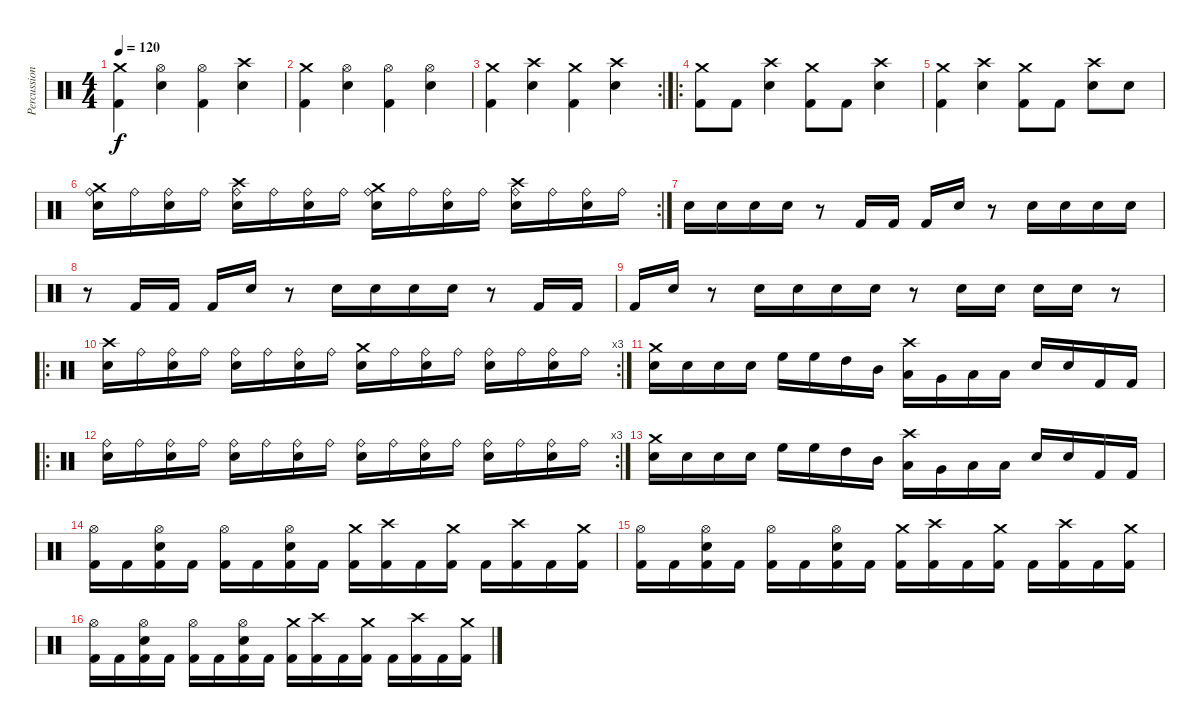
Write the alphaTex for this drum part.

\track ("Percussion" "Percussion") {instrument percussion}
\staff {score}
\articulation defaults
\ts (4 4)
\tempo 120
\clef neutral
\ks c
("Crash medium (hit)" "Kick (hit) 2").4{dy f} ("Hi-Hat (open)" "Electric Snare (hit)").4 ("Hi-Hat (open)" "Kick (hit) 2").4 ("Crash high (hit)" "Electric Snare (hit)").4 |
("Crash medium (hit)" "Kick (hit) 2").4 ("Hi-Hat (open)" "Electric Snare (hit)").4 ("Hi-Hat (open)" "Kick (hit) 2").4 ("Hi-Hat (open)" "Electric Snare (hit)").4 |
\rc 2
("Crash medium (hit)" "Kick (hit) 2").4 ("Crash high (hit)" "Electric Snare (hit)").4 ("Crash medium (hit)" "Kick (hit) 2").4 ("Crash high (hit)" "Electric Snare (hit)").4 |
\ro
("Crash medium (hit)" "Kick (hit) 2").8 "Kick (hit) 2".8 ("Crash high (hit)" "Electric Snare (hit)").4 ("Crash medium (hit)" "Kick (hit) 2").8 "Kick (hit) 2".8 ("Crash high (hit)" "Electric Snare (hit)").4 |
("Crash medium (hit)" "Kick (hit) 2").4 ("Crash high (hit)" "Electric Snare (hit)").4 ("Crash medium (hit)" "Kick (hit) 2").8 "Kick (hit) 2".8 ("Crash high (hit)" "Electric Snare (hit)").8 "Electric Snare (hit)".8 |
\rc 2
("Crash medium (hit)" "Ride (bell)" "Electric Snare (hit)").16 "Ride (bell)".16 ("Ride (bell)" "Electric Snare (hit)").16 "Ride (bell)".16 ("Crash high (hit)" "Ride (bell)" "Electric Snare (hit)").16 "Ride (bell)".16 ("Ride (bell)" "Electric Snare (hit)").16 "Ride (bell)".16 ("Crash medium (hit)" "Ride (bell)" "Electric Snare (hit)").16 "Ride (bell)".16 ("Ride (bell)" "Electric Snare (hit)").16 "Ride (bell)".16 ("Crash high (hit)" "Ride (bell)" "Electric Snare (hit)").16 "Ride (bell)".16 ("Ride (bell)" "Electric Snare (hit)").16 "Ride (bell)".16 |
"Electric Snare (hit)".16 "Electric Snare (hit)".16 "Electric Snare (hit)".16 "Electric Snare (hit)".16 r.8 "Kick (hit) 2".16 "Kick (hit) 2".16 "Kick (hit) 2".16 "Electric Snare (hit)".16 r.8 "Electric Snare (hit)".16 "Electric Snare (hit)".16 "Electric Snare (hit)".16 "Electric Snare (hit)".16 |
r.8 "Kick (hit) 2".16 "Kick (hit) 2".16 "Kick (hit) 2".16 "Electric Snare (hit)".16 r.8 "Electric Snare (hit)".16 "Electric Snare (hit)".16 "Electric Snare (hit)".16 "Electric Snare (hit)".16 r.8 "Kick (hit) 2".16 "Kick (hit) 2".16 |
"Kick (hit) 2".16 "Electric Snare (hit)".16 r.8 "Electric Snare (hit)".16 "Electric Snare (hit)".16 "Electric Snare (hit)".16 "Electric Snare (hit)".16 r.8 "Electric Snare (hit)".16 "Electric Snare (hit)".16 "Electric Snare (hit)".16 "Electric Snare (hit)".16 r.8 |
\ro
\rc 3
("Electric Snare (hit)" "Crash high (hit)").16 "Ride (bell)".16 ("Electric Snare (hit)" "Ride (bell)").16 "Ride (bell)".16 ("Electric Snare (hit)" "Ride (bell)").16 "Ride (bell)".16 ("Electric Snare (hit)" "Ride (bell)").16 "Ride (bell)".16 ("Electric Snare (hit)" "Crash medium (hit)").16 "Ride (bell)".16 ("Electric Snare (hit)" "Ride (bell)").16 "Ride (bell)".16 ("Electric Snare (hit)" "Ride (bell)").16 "Ride (bell)".16 ("Electric Snare (hit)" "Ride (bell)").16 "Ride (bell)".16 |
("Crash medium (hit)" "Electric Snare (hit)").16 "Electric Snare (hit)".16 "Electric Snare (hit)".16 "Electric Snare (hit)".16 "High Floor Tom (hit)".16 "High Floor Tom (hit)".16 "High Tom (hit)".16 "Mid Tom (hit)".16 ("Crash high (hit)" "Low Tom (hit)").16 "Very Low Tom (hit)".16 "Low Floor Tom (hit)".16 "Low Floor Tom (hit)".16 "Electric Snare (hit)".16 "Electric Snare (hit)".16 "Kick (hit) 2".16 "Kick (hit) 2".16 |
\ro
\rc 3
("Electric Snare (hit)" "Ride (bell)").16 "Ride (bell)".16 ("Electric Snare (hit)" "Ride (bell)").16 "Ride (bell)".16 ("Electric Snare (hit)" "Ride (bell)").16 "Ride (bell)".16 ("Electric Snare (hit)" "Ride (bell)").16 "Ride (bell)".16 ("Electric Snare (hit)" "Ride (bell)").16 "Ride (bell)".16 ("Electric Snare (hit)" "Ride (bell)").16 "Ride (bell)".16 ("Electric Snare (hit)" "Ride (bell)").16 "Ride (bell)".16 ("Electric Snare (hit)" "Ride (bell)").16 "Ride (bell)".16 |
("Crash medium (hit)" "Electric Snare (hit)").16 "Electric Snare (hit)".16 "Electric Snare (hit)".16 "Electric Snare (hit)".16 "High Floor Tom (hit)".16 "High Floor Tom (hit)".16 "High Tom (hit)".16 "Mid Tom (hit)".16 ("Crash high (hit)" "Low Tom (hit)").16 "Very Low Tom (hit)".16 "Low Floor Tom (hit)".16 "Low Floor Tom (hit)".16 "Electric Snare (hit)".16 "Electric Snare (hit)".16 "Kick (hit) 2".16 "Kick (hit) 2".16 |
("Hi-Hat (open)" "Kick (hit) 2").16 "Kick (hit) 2".16 ("Hi-Hat (open)" "Snare (hit) 2" "Kick (hit) 2").16 "Kick (hit) 2".16 ("Hi-Hat (open)" "Kick (hit) 2").16 "Kick (hit) 2".16 ("Hi-Hat (open)" "Snare (hit) 2" "Kick (hit) 2").16 "Kick (hit) 2".16 ("Crash medium (hit)" "Kick (hit) 2").16 ("Crash high (hit)" "Kick (hit) 2").16 "Kick (hit) 2".16 ("Crash medium (hit)" "Kick (hit) 2").16 "Kick (hit) 2".16 ("Crash high (hit)" "Kick (hit) 2").16 "Kick (hit) 2".16 ("Crash medium (hit)" "Kick (hit) 2").16 |
("Hi-Hat (open)" "Kick (hit) 2").16 "Kick (hit) 2".16 ("Hi-Hat (open)" "Snare (hit) 2" "Kick (hit) 2").16 "Kick (hit) 2".16 ("Hi-Hat (open)" "Kick (hit) 2").16 "Kick (hit) 2".16 ("Hi-Hat (open)" "Snare (hit) 2" "Kick (hit) 2").16 "Kick (hit) 2".16 ("Crash medium (hit)" "Kick (hit) 2").16 ("Crash high (hit)" "Kick (hit) 2").16 "Kick (hit) 2".16 ("Crash medium (hit)" "Kick (hit) 2").16 "Kick (hit) 2".16 ("Crash high (hit)" "Kick (hit) 2").16 "Kick (hit) 2".16 ("Crash medium (hit)" "Kick (hit) 2").16 |
("Hi-Hat (open)" "Kick (hit) 2").16 "Kick (hit) 2".16 ("Hi-Hat (open)" "Snare (hit) 2" "Kick (hit) 2").16 "Kick (hit) 2".16 ("Hi-Hat (open)" "Kick (hit) 2").16 "Kick (hit) 2".16 ("Hi-Hat (open)" "Snare (hit) 2" "Kick (hit) 2").16 "Kick (hit) 2".16 ("Crash medium (hit)" "Kick (hit) 2").16 ("Crash high (hit)" "Kick (hit) 2").16 "Kick (hit) 2".16 ("Crash medium (hit)" "Kick (hit) 2").16 "Kick (hit) 2".16 ("Crash high (hit)" "Kick (hit) 2").16 "Kick (hit) 2".16 ("Crash medium (hit)" "Kick (hit) 2").16
